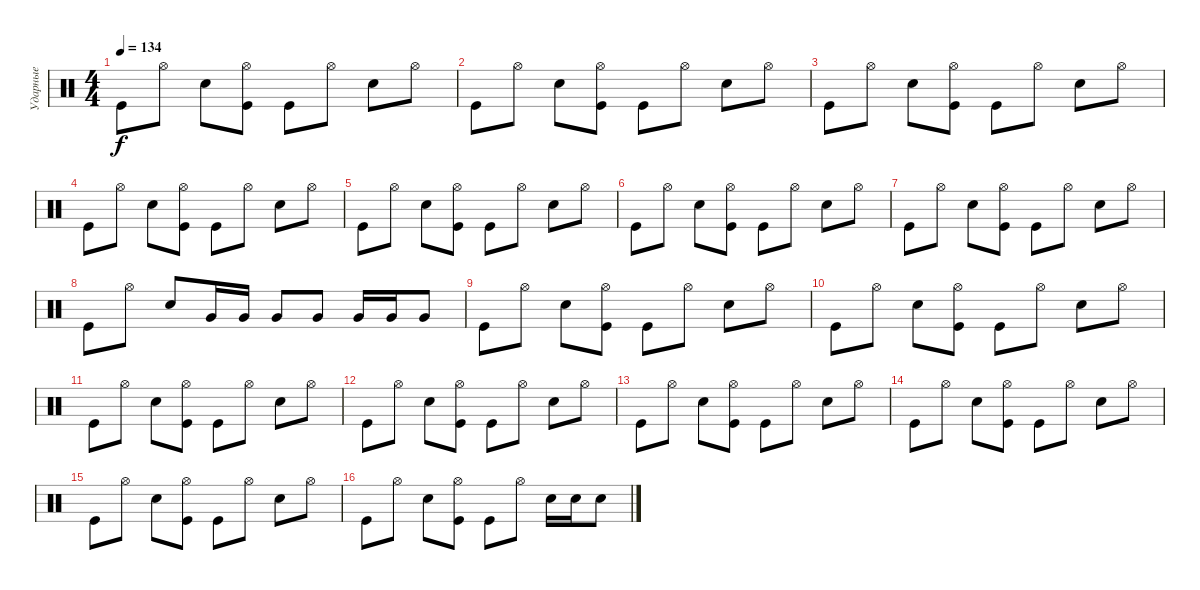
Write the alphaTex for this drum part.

\track ("Ударные" "Ударные") {instrument percussion}
\staff {score}
\articulation defaults
\ts (4 4)
\tempo 134
\clef neutral
\ks c "Kick (hit)".8{dy f} "Hi-Hat (open)".8 "Snare (hit) 2".8
("Hi-Hat (open)" "Kick (hit)").8 "Kick (hit)".8 "Hi-Hat (open)".8 "Snare (hit) 2".8 "Hi-Hat (open)".8 |
"Kick (hit)".8 "Hi-Hat (open)".8 "Snare (hit) 2".8 ("Hi-Hat (open)" "Kick (hit)").8 "Kick (hit)".8 "Hi-Hat (open)".8 "Snare (hit) 2".8 "Hi-Hat (open)".8 |
"Kick (hit)".8 "Hi-Hat (open)".8 "Snare (hit) 2".8 ("Hi-Hat (open)" "Kick (hit)").8 "Kick (hit)".8 "Hi-Hat (open)".8 "Snare (hit) 2".8 "Hi-Hat (open)".8 |
"Kick (hit)".8 "Hi-Hat (open)".8 "Snare (hit) 2".8 ("Hi-Hat (open)" "Kick (hit)").8 "Kick (hit)".8 "Hi-Hat (open)".8 "Snare (hit) 2".8 "Hi-Hat (open)".8 |
"Kick (hit)".8 "Hi-Hat (open)".8 "Snare (hit) 2".8 ("Hi-Hat (open)" "Kick (hit)").8 "Kick (hit)".8 "Hi-Hat (open)".8 "Snare (hit) 2".8 "Hi-Hat (open)".8 |
"Kick (hit)".8 "Hi-Hat (open)".8 "Snare (hit) 2".8 ("Hi-Hat (open)" "Kick (hit)").8 "Kick (hit)".8 "Hi-Hat (open)".8 "Snare (hit) 2".8 "Hi-Hat (open)".8 |
"Kick (hit)".8 "Hi-Hat (open)".8 "Snare (hit) 2".8 ("Hi-Hat (open)" "Kick (hit)").8 "Kick (hit)".8 "Hi-Hat (open)".8 "Snare (hit) 2".8 "Hi-Hat (open)".8 |
"Kick (hit)".8 "Hi-Hat (open)".8 "Snare (hit) 2".8 "Very Low Tom (hit)".16 "Very Low Tom (hit)".16 "Very Low Tom (hit)".8 "Very Low Tom (hit)".8 "Very Low Tom (hit)".16 "Very Low Tom (hit)".16 "Very Low Tom (hit)".8 |
"Kick (hit)".8 "Hi-Hat (open)".8 "Snare (hit) 2".8 ("Hi-Hat (open)" "Kick (hit)").8 "Kick (hit)".8 "Hi-Hat (open)".8 "Snare (hit) 2".8 "Hi-Hat (open)".8 |
"Kick (hit)".8 "Hi-Hat (open)".8 "Snare (hit) 2".8 ("Hi-Hat (open)" "Kick (hit)").8 "Kick (hit)".8 "Hi-Hat (open)".8 "Snare (hit) 2".8 "Hi-Hat (open)".8 |
"Kick (hit)".8 "Hi-Hat (open)".8 "Snare (hit) 2".8 ("Hi-Hat (open)" "Kick (hit)").8 "Kick (hit)".8 "Hi-Hat (open)".8 "Snare (hit) 2".8 "Hi-Hat (open)".8 |
"Kick (hit)".8 "Hi-Hat (open)".8 "Snare (hit) 2".8 ("Hi-Hat (open)" "Kick (hit)").8 "Kick (hit)".8 "Hi-Hat (open)".8 "Snare (hit) 2".8 "Hi-Hat (open)".8 |
"Kick (hit)".8 "Hi-Hat (open)".8 "Snare (hit) 2".8 ("Hi-Hat (open)" "Kick (hit)").8 "Kick (hit)".8 "Hi-Hat (open)".8 "Snare (hit) 2".8 "Hi-Hat (open)".8 |
"Kick (hit)".8 "Hi-Hat (open)".8 "Snare (hit) 2".8 ("Hi-Hat (open)" "Kick (hit)").8 "Kick (hit)".8 "Hi-Hat (open)".8 "Snare (hit) 2".8 "Hi-Hat (open)".8 |
"Kick (hit)".8 "Hi-Hat (open)".8 "Snare (hit) 2".8 ("Hi-Hat (open)" "Kick (hit)").8 "Kick (hit)".8 "Hi-Hat (open)".8 "Snare (hit) 2".8 "Hi-Hat (open)".8 |
"Kick (hit)".8 "Hi-Hat (open)".8 "Snare (hit) 2".8 ("Hi-Hat (open)" "Kick (hit)").8 "Kick (hit)".8 "Hi-Hat (open)".8 "Snare (hit) 2".16 "Snare (hit) 2".16 "Snare (hit) 2".8
